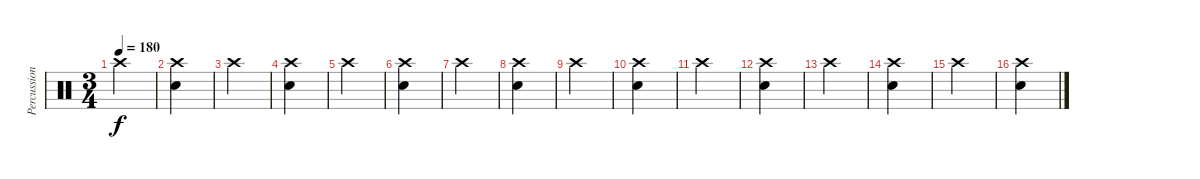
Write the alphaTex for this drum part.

\track ("Percussion" "Percussion") {instrument percussion}
\staff {score}
\articulation defaults
\ts (3 4)
\tempo 180
\clef neutral
\ks c "Crash high (hit)".4{dy f}
|
("Crash high (hit)" "Snare (hit) 2").4 |
"Crash high (hit)".4 |
("Crash high (hit)" "Snare (hit) 2").4 |
"Crash high (hit)".4 |
("Crash high (hit)" "Snare (hit) 2").4 |
"Crash high (hit)".4 |
("Crash high (hit)" "Snare (hit) 2").4 |
"Crash high (hit)".4 |
("Crash high (hit)" "Snare (hit) 2").4 |
"Crash high (hit)".4 |
("Crash high (hit)" "Snare (hit) 2").4 |
"Crash high (hit)".4 |
("Crash high (hit)" "Snare (hit) 2").4 |
"Crash high (hit)".4 |
("Crash high (hit)" "Snare (hit) 2").4
